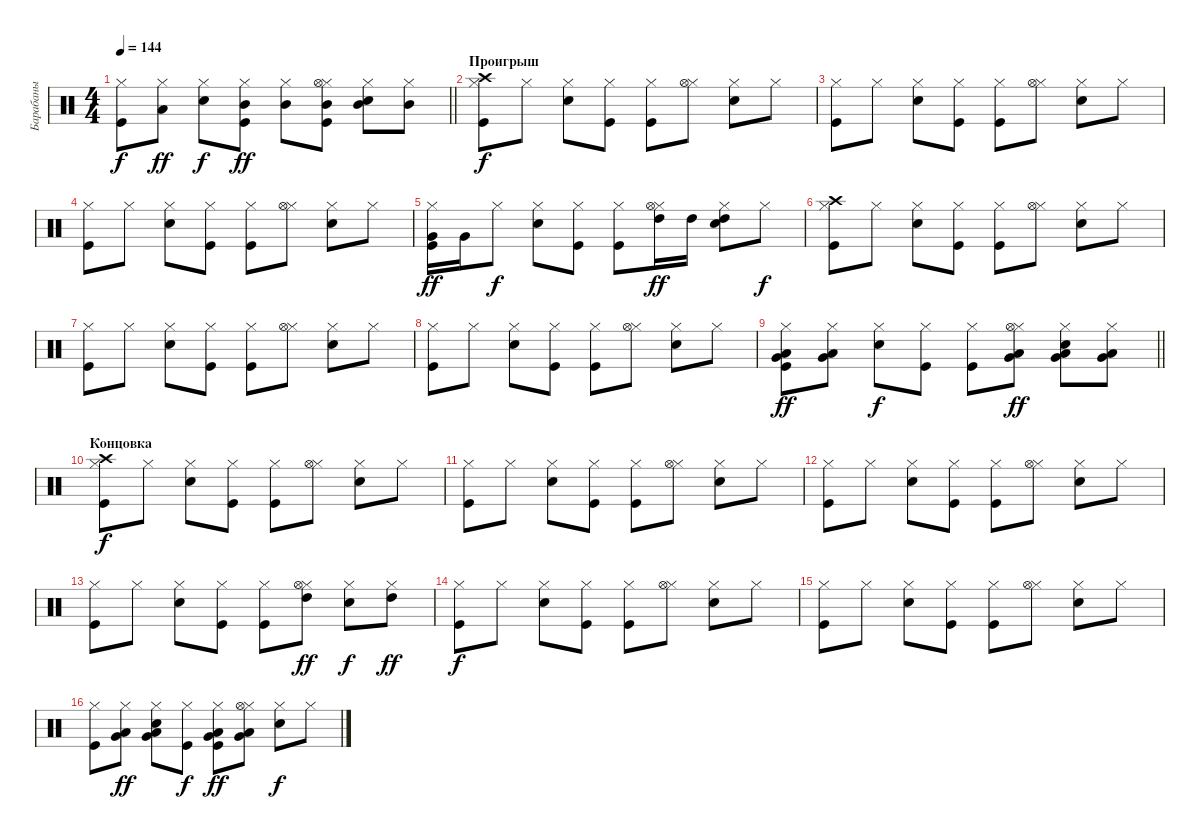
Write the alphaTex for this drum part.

\track ("Барабаны" "Барабаны") {instrument percussion}
\staff {score}
\articulation defaults
\ts (4 4)
\tempo 144
\clef neutral
\barLineRight lightlight
\ks c
("Kick (hit)" "Hi-Hat (closed)").8{dy f} ("Hi-Hat (closed)" "Low Floor Tom (hit)").8{dy ff} ("Snare (hit) 2" "Hi-Hat (closed)").8{dy f} ("Kick (hit)" "Hi-Hat (closed)" "Mid Tom (hit)").8{dy ff} ("Hi-Hat (closed)" "Mid Tom (hit)").8 ("Kick (hit)" "Hi-Hat (closed)" "Mid Tom (hit)" "Hi-Hat (open)").8 ("Snare (hit) 2" "Hi-Hat (closed)" "Mid Tom (hit)").8 ("Hi-Hat (closed)" "Mid Tom (hit)").8 |
\section ("" "Проигрыш")
("Kick (hit)" "Hi-Hat (closed)" "Crash high (hit)").8{dy f} "Hi-Hat (closed)".8 ("Snare (hit) 2" "Hi-Hat (closed)").8 ("Kick (hit)" "Hi-Hat (closed)").8 ("Kick (hit)" "Hi-Hat (closed)").8 ("Hi-Hat (closed)" "Hi-Hat (open)").8 ("Snare (hit) 2" "Hi-Hat (closed)").8 "Hi-Hat (closed)".8 |
("Kick (hit)" "Hi-Hat (closed)").8 "Hi-Hat (closed)".8 ("Snare (hit) 2" "Hi-Hat (closed)").8 ("Kick (hit)" "Hi-Hat (closed)").8 ("Kick (hit)" "Hi-Hat (closed)").8 ("Hi-Hat (closed)" "Hi-Hat (open)").8 ("Snare (hit) 2" "Hi-Hat (closed)").8 "Hi-Hat (closed)".8 |
("Kick (hit)" "Hi-Hat (closed)").8 "Hi-Hat (closed)".8 ("Snare (hit) 2" "Hi-Hat (closed)").8 ("Kick (hit)" "Hi-Hat (closed)").8 ("Kick (hit)" "Hi-Hat (closed)").8 ("Hi-Hat (closed)" "Hi-Hat (open)").8 ("Snare (hit) 2" "Hi-Hat (closed)").8 "Hi-Hat (closed)".8 |
("Kick (hit)" "Hi-Hat (closed)" "Very Low Tom (hit)").16{dy ff} "Very Low Tom (hit)".16 "Hi-Hat (closed)".8{dy f} ("Snare (hit) 2" "Hi-Hat (closed)").8 ("Kick (hit)" "Hi-Hat (closed)").8 ("Kick (hit)" "Hi-Hat (closed)").8 ("Hi-Hat (closed)" "High Tom (hit)" "Hi-Hat (open)").16{dy ff} "High Tom (hit)".16 ("Snare (hit) 2" "Hi-Hat (closed)" "High Tom (hit)").8 "Hi-Hat (closed)".8{dy f} |
("Kick (hit)" "Hi-Hat (closed)" "Crash high (hit)").8 "Hi-Hat (closed)".8 ("Snare (hit) 2" "Hi-Hat (closed)").8 ("Kick (hit)" "Hi-Hat (closed)").8 ("Kick (hit)" "Hi-Hat (closed)").8 ("Hi-Hat (closed)" "Hi-Hat (open)").8 ("Snare (hit) 2" "Hi-Hat (closed)").8 "Hi-Hat (closed)".8 |
("Kick (hit)" "Hi-Hat (closed)").8 "Hi-Hat (closed)".8 ("Snare (hit) 2" "Hi-Hat (closed)").8 ("Kick (hit)" "Hi-Hat (closed)").8 ("Kick (hit)" "Hi-Hat (closed)").8 ("Hi-Hat (closed)" "Hi-Hat (open)").8 ("Snare (hit) 2" "Hi-Hat (closed)").8 "Hi-Hat (closed)".8 |
("Kick (hit)" "Hi-Hat (closed)").8 "Hi-Hat (closed)".8 ("Snare (hit) 2" "Hi-Hat (closed)").8 ("Kick (hit)" "Hi-Hat (closed)").8 ("Kick (hit)" "Hi-Hat (closed)").8 ("Hi-Hat (closed)" "Hi-Hat (open)").8 ("Snare (hit) 2" "Hi-Hat (closed)").8 "Hi-Hat (closed)".8 |
\barLineRight lightlight
("Kick (hit)" "Hi-Hat (closed)" "Low Floor Tom (hit)" "Very Low Tom (hit)").8{dy ff} ("Hi-Hat (closed)" "Low Floor Tom (hit)" "Very Low Tom (hit)").8 ("Snare (hit) 2" "Hi-Hat (closed)").8{dy f} ("Kick (hit)" "Hi-Hat (closed)").8 ("Kick (hit)" "Hi-Hat (closed)").8 ("Hi-Hat (closed)" "Low Floor Tom (hit)" "Very Low Tom (hit)" "Hi-Hat (open)").8{dy ff} ("Snare (hit) 2" "Hi-Hat (closed)" "Low Floor Tom (hit)" "Very Low Tom (hit)").8 ("Hi-Hat (closed)" "Low Floor Tom (hit)" "Very Low Tom (hit)").8 |
\section ("" "Концовка")
("Kick (hit)" "Hi-Hat (closed)" "Crash high (hit)").8{dy f} "Hi-Hat (closed)".8 ("Snare (hit) 2" "Hi-Hat (closed)").8 ("Kick (hit)" "Hi-Hat (closed)").8 ("Kick (hit)" "Hi-Hat (closed)").8 ("Hi-Hat (closed)" "Hi-Hat (open)").8 ("Snare (hit) 2" "Hi-Hat (closed)").8 "Hi-Hat (closed)".8 |
("Kick (hit)" "Hi-Hat (closed)").8 "Hi-Hat (closed)".8 ("Snare (hit) 2" "Hi-Hat (closed)").8 ("Kick (hit)" "Hi-Hat (closed)").8 ("Kick (hit)" "Hi-Hat (closed)").8 ("Hi-Hat (closed)" "Hi-Hat (open)").8 ("Snare (hit) 2" "Hi-Hat (closed)").8 "Hi-Hat (closed)".8 |
("Kick (hit)" "Hi-Hat (closed)").8 "Hi-Hat (closed)".8 ("Snare (hit) 2" "Hi-Hat (closed)").8 ("Kick (hit)" "Hi-Hat (closed)").8 ("Kick (hit)" "Hi-Hat (closed)").8 ("Hi-Hat (closed)" "Hi-Hat (open)").8 ("Snare (hit) 2" "Hi-Hat (closed)").8 "Hi-Hat (closed)".8 |
("Kick (hit)" "Hi-Hat (closed)").8 "Hi-Hat (closed)".8 ("Snare (hit) 2" "Hi-Hat (closed)").8 ("Kick (hit)" "Hi-Hat (closed)").8 ("Kick (hit)" "Hi-Hat (closed)").8 ("Hi-Hat (closed)" "High Tom (hit)" "Hi-Hat (open)").8{dy ff} ("Snare (hit) 2" "Hi-Hat (closed)").8{dy f} ("Hi-Hat (closed)" "High Tom (hit)").8{dy ff} |
("Kick (hit)" "Hi-Hat (closed)").8{dy f} "Hi-Hat (closed)".8 ("Snare (hit) 2" "Hi-Hat (closed)").8 ("Kick (hit)" "Hi-Hat (closed)").8 ("Kick (hit)" "Hi-Hat (closed)").8 ("Hi-Hat (closed)" "Hi-Hat (open)").8 ("Snare (hit) 2" "Hi-Hat (closed)").8 "Hi-Hat (closed)".8 |
("Kick (hit)" "Hi-Hat (closed)").8 "Hi-Hat (closed)".8 ("Snare (hit) 2" "Hi-Hat (closed)").8 ("Kick (hit)" "Hi-Hat (closed)").8 ("Kick (hit)" "Hi-Hat (closed)").8 ("Hi-Hat (closed)" "Hi-Hat (open)").8 ("Snare (hit) 2" "Hi-Hat (closed)").8 "Hi-Hat (closed)".8 |
("Kick (hit)" "Hi-Hat (closed)").8 ("Hi-Hat (closed)" "Low Floor Tom (hit)" "Very Low Tom (hit)").8{dy ff} ("Snare (hit) 2" "Hi-Hat (closed)" "Low Floor Tom (hit)" "Very Low Tom (hit)").8 ("Kick (hit)" "Hi-Hat (closed)").8{dy f} ("Kick (hit)" "Hi-Hat (closed)" "Very Low Tom (hit)" "Low Tom (hit)").8{dy ff} ("Hi-Hat (closed)" "Very Low Tom (hit)" "Low Tom (hit)" "Hi-Hat (open)").8 ("Snare (hit) 2" "Hi-Hat (closed)").8{dy f} "Hi-Hat (closed)".8
